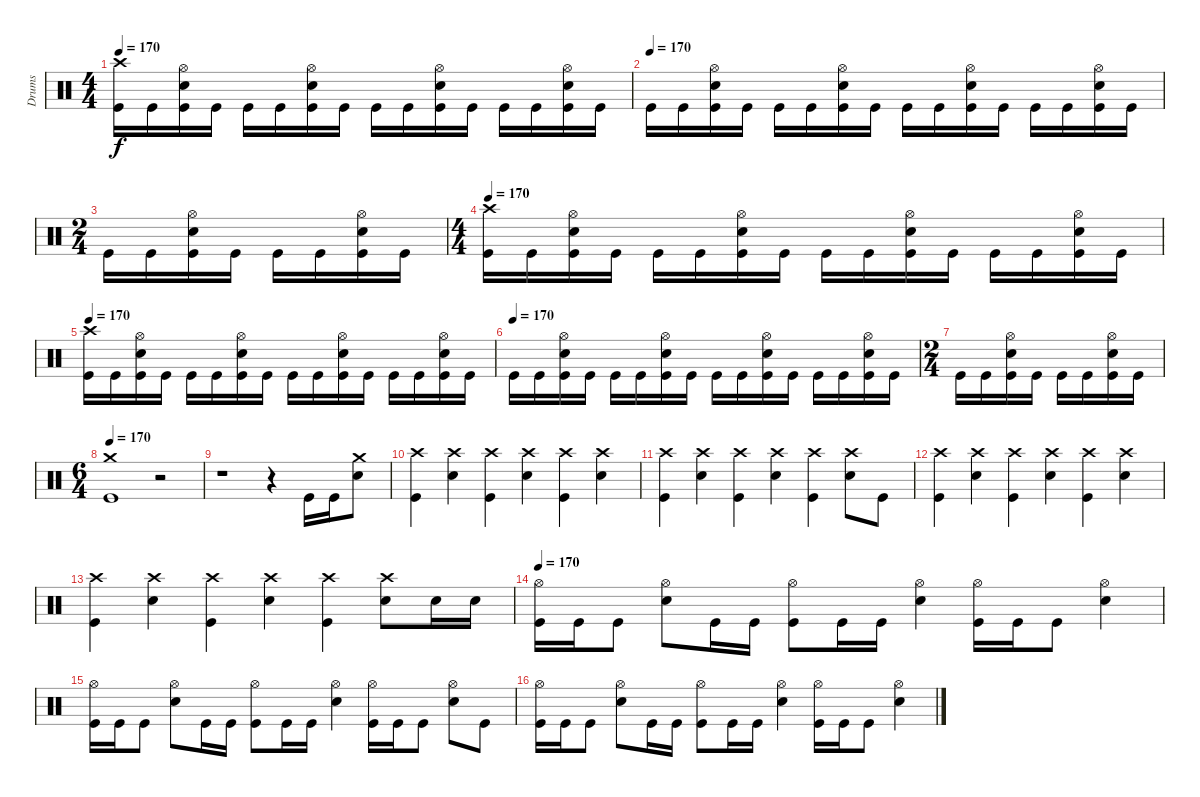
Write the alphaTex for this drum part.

\track ("Drums" "Drums") {instrument percussion}
\staff {score}
\articulation defaults
\ts (4 4)
\tempo 170
\clef neutral
\ks c
("Kick (hit)" "Crash high (hit)").16{dy f} "Kick (hit)".16 ("Kick (hit)" "Snare (hit) 2" "Hi-Hat (open)").16 "Kick (hit)".16 "Kick (hit)".16 "Kick (hit)".16 ("Kick (hit)" "Snare (hit) 2" "Hi-Hat (open)").16 "Kick (hit)".16 "Kick (hit)".16 "Kick (hit)".16 ("Kick (hit)" "Snare (hit) 2" "Hi-Hat (open)").16 "Kick (hit)".16 "Kick (hit)".16 "Kick (hit)".16 ("Kick (hit)" "Snare (hit) 2" "Hi-Hat (open)").16 "Kick (hit)".16 |
\tempo (170)
"Kick (hit)".16 "Kick (hit)".16 ("Kick (hit)" "Snare (hit) 2" "Hi-Hat (open)").16 "Kick (hit)".16 "Kick (hit)".16 "Kick (hit)".16 ("Kick (hit)" "Snare (hit) 2" "Hi-Hat (open)").16 "Kick (hit)".16 "Kick (hit)".16 "Kick (hit)".16 ("Kick (hit)" "Snare (hit) 2" "Hi-Hat (open)").16 "Kick (hit)".16 "Kick (hit)".16 "Kick (hit)".16 ("Kick (hit)" "Snare (hit) 2" "Hi-Hat (open)").16 "Kick (hit)".16 |
\ts (2 4)
"Kick (hit)".16 "Kick (hit)".16 ("Kick (hit)" "Snare (hit) 2" "Hi-Hat (open)").16 "Kick (hit)".16 "Kick (hit)".16 "Kick (hit)".16 ("Kick (hit)" "Snare (hit) 2" "Hi-Hat (open)").16 "Kick (hit)".16 |
\ts (4 4)
\tempo 170
("Kick (hit)" "Crash high (hit)").16 "Kick (hit)".16 ("Kick (hit)" "Snare (hit) 2" "Hi-Hat (open)").16 "Kick (hit)".16 "Kick (hit)".16 "Kick (hit)".16 ("Kick (hit)" "Snare (hit) 2" "Hi-Hat (open)").16 "Kick (hit)".16 "Kick (hit)".16 "Kick (hit)".16 ("Kick (hit)" "Snare (hit) 2" "Hi-Hat (open)").16 "Kick (hit)".16 "Kick (hit)".16 "Kick (hit)".16 ("Kick (hit)" "Snare (hit) 2" "Hi-Hat (open)").16 "Kick (hit)".16 |
\tempo 170
("Kick (hit)" "Crash high (hit)").16 "Kick (hit)".16 ("Kick (hit)" "Snare (hit) 2" "Hi-Hat (open)").16 "Kick (hit)".16 "Kick (hit)".16 "Kick (hit)".16 ("Kick (hit)" "Snare (hit) 2" "Hi-Hat (open)").16 "Kick (hit)".16 "Kick (hit)".16 "Kick (hit)".16 ("Kick (hit)" "Snare (hit) 2" "Hi-Hat (open)").16 "Kick (hit)".16 "Kick (hit)".16 "Kick (hit)".16 ("Kick (hit)" "Snare (hit) 2" "Hi-Hat (open)").16 "Kick (hit)".16 |
\tempo (170)
"Kick (hit)".16 "Kick (hit)".16 ("Kick (hit)" "Snare (hit) 2" "Hi-Hat (open)").16 "Kick (hit)".16 "Kick (hit)".16 "Kick (hit)".16 ("Kick (hit)" "Snare (hit) 2" "Hi-Hat (open)").16 "Kick (hit)".16 "Kick (hit)".16 "Kick (hit)".16 ("Kick (hit)" "Snare (hit) 2" "Hi-Hat (open)").16 "Kick (hit)".16 "Kick (hit)".16 "Kick (hit)".16 ("Kick (hit)" "Snare (hit) 2" "Hi-Hat (open)").16 "Kick (hit)".16 |
\ts (2 4)
"Kick (hit)".16 "Kick (hit)".16 ("Kick (hit)" "Snare (hit) 2" "Hi-Hat (open)").16 "Kick (hit)".16 "Kick (hit)".16 "Kick (hit)".16 ("Kick (hit)" "Snare (hit) 2" "Hi-Hat (open)").16 "Kick (hit)".16 |
\ts (6 4)
\tempo 170
("Kick (hit)" "Crash medium (hit)").1 r.2 |
r.1 r.4 "Kick (hit)".16 "Kick (hit)".16 ("Snare (hit) 2" "Crash medium (hit)").8 |
("Kick (hit)" "Crash high (hit)").4 ("Snare (hit) 2" "Crash high (hit)").4 ("Kick (hit)" "Crash high (hit)").4 ("Snare (hit) 2" "Crash high (hit)").4 ("Kick (hit)" "Crash high (hit)").4 ("Snare (hit) 2" "Crash high (hit)").4 |
("Kick (hit)" "Crash high (hit)").4 ("Snare (hit) 2" "Crash high (hit)").4 ("Kick (hit)" "Crash high (hit)").4 ("Snare (hit) 2" "Crash high (hit)").4 ("Kick (hit)" "Crash high (hit)").4 ("Snare (hit) 2" "Crash high (hit)").8 "Kick (hit)".8 |
("Kick (hit)" "Crash high (hit)").4 ("Snare (hit) 2" "Crash high (hit)").4 ("Kick (hit)" "Crash high (hit)").4 ("Snare (hit) 2" "Crash high (hit)").4 ("Kick (hit)" "Crash high (hit)").4 ("Snare (hit) 2" "Crash high (hit)").4 |
("Kick (hit)" "Crash high (hit)").4 ("Snare (hit) 2" "Crash high (hit)").4 ("Kick (hit)" "Crash high (hit)").4 ("Snare (hit) 2" "Crash high (hit)").4 ("Kick (hit)" "Crash high (hit)").4 ("Snare (hit) 2" "Crash high (hit)").8 "Snare (hit) 2".16 "Snare (hit) 2".16 |
\tempo 170
("Kick (hit)" "Hi-Hat (open)").16 "Kick (hit)".16 "Kick (hit)".8 ("Snare (hit) 2" "Hi-Hat (open)").8 "Kick (hit)".16 "Kick (hit)".16 ("Kick (hit)" "Hi-Hat (open)").8 "Kick (hit)".16 "Kick (hit)".16 ("Snare (hit) 2" "Hi-Hat (open)").4 ("Kick (hit)" "Hi-Hat (open)").16 "Kick (hit)".16 "Kick (hit)".8 ("Snare (hit) 2" "Hi-Hat (open)").4 |
("Kick (hit)" "Hi-Hat (open)").16 "Kick (hit)".16 "Kick (hit)".8 ("Snare (hit) 2" "Hi-Hat (open)").8 "Kick (hit)".16 "Kick (hit)".16 ("Kick (hit)" "Hi-Hat (open)").8 "Kick (hit)".16 "Kick (hit)".16 ("Snare (hit) 2" "Hi-Hat (open)").4 ("Kick (hit)" "Hi-Hat (open)").16 "Kick (hit)".16 "Kick (hit)".8 ("Snare (hit) 2" "Hi-Hat (open)").8 "Kick (hit)".8 |
("Kick (hit)" "Hi-Hat (open)").16 "Kick (hit)".16 "Kick (hit)".8 ("Snare (hit) 2" "Hi-Hat (open)").8 "Kick (hit)".16 "Kick (hit)".16 ("Kick (hit)" "Hi-Hat (open)").8 "Kick (hit)".16 "Kick (hit)".16 ("Snare (hit) 2" "Hi-Hat (open)").4 ("Kick (hit)" "Hi-Hat (open)").16 "Kick (hit)".16 "Kick (hit)".8 ("Snare (hit) 2" "Hi-Hat (open)").4
